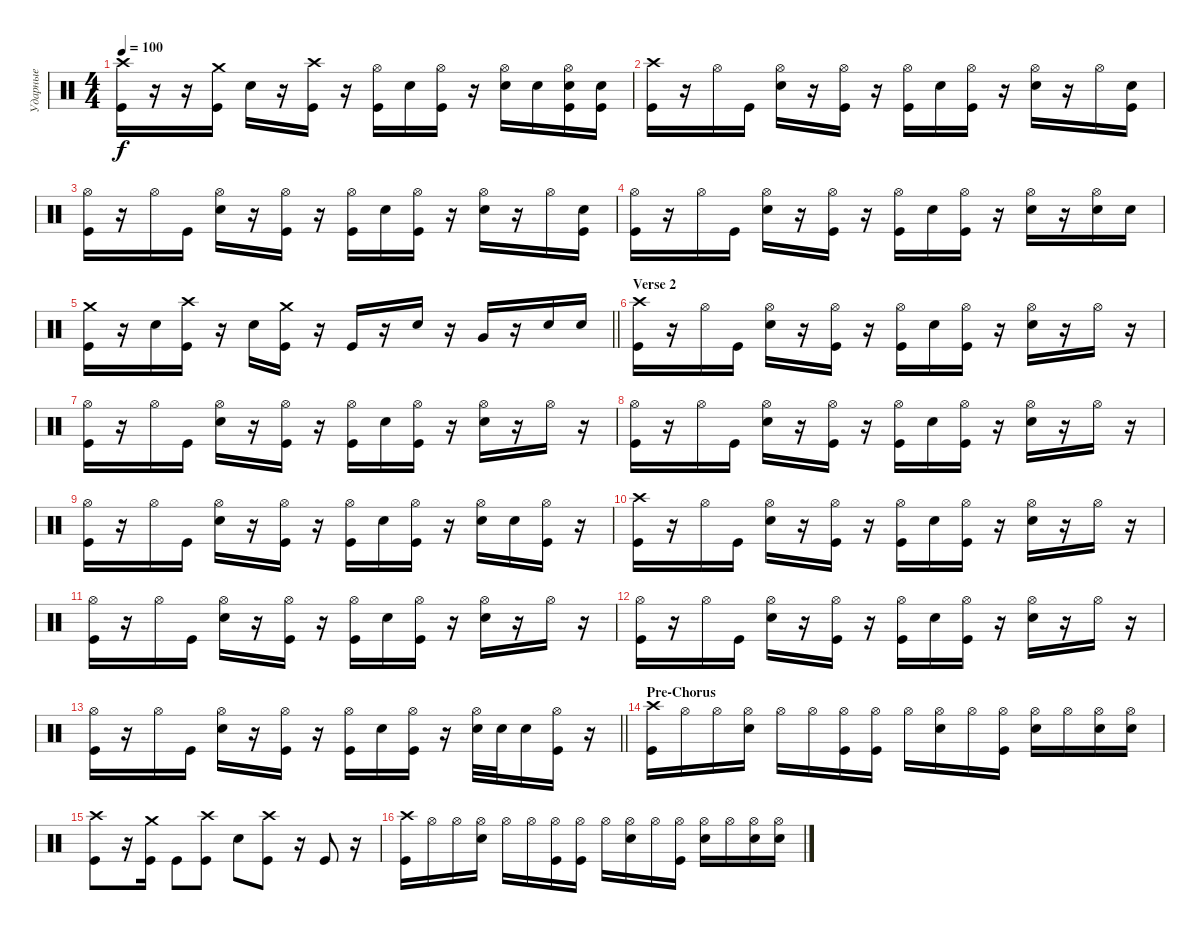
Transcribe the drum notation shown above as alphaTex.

\track ("Ударные" "Ударные") {instrument percussion}
\staff {score}
\articulation defaults
\ts (4 4)
\tempo 100
\clef neutral
\ks c
("Crash high (hit)" "Kick (hit)").16{dy f} r.16 r.16 ("Crash medium (hit)" "Kick (hit)").16 "Snare (hit) 2".16 r.16 ("Crash high (hit)" "Kick (hit)").16 r.16 ("Hi-Hat (open)" "Kick (hit)").16 "Snare (hit) 2".16 ("Hi-Hat (open)" "Kick (hit)").16 r.16 ("Hi-Hat (open)" "Snare (hit) 2").16 "Snare (hit) 2".16 ("Hi-Hat (open)" "Snare (hit) 2" "Kick (hit)").16 ("Snare (hit) 2" "Kick (hit)").16 |
("Crash high (hit)" "Kick (hit)").16 r.16 "Hi-Hat (open)".16 "Kick (hit)".16 ("Hi-Hat (open)" "Snare (hit) 2").16 r.16 ("Hi-Hat (open)" "Kick (hit)").16 r.16 ("Hi-Hat (open)" "Kick (hit)").16 "Snare (hit) 2".16 ("Hi-Hat (open)" "Kick (hit)").16 r.16 ("Hi-Hat (open)" "Snare (hit) 2").16 r.16 "Hi-Hat (open)".16 ("Snare (hit) 2" "Kick (hit)").16 |
("Hi-Hat (open)" "Kick (hit)").16 r.16 "Hi-Hat (open)".16 "Kick (hit)".16 ("Hi-Hat (open)" "Snare (hit) 2").16 r.16 ("Hi-Hat (open)" "Kick (hit)").16 r.16 ("Hi-Hat (open)" "Kick (hit)").16 "Snare (hit) 2".16 ("Hi-Hat (open)" "Kick (hit)").16 r.16 ("Hi-Hat (open)" "Snare (hit) 2").16 r.16 "Hi-Hat (open)".16 ("Snare (hit) 2" "Kick (hit)").16 |
("Hi-Hat (open)" "Kick (hit)").16 r.16 "Hi-Hat (open)".16 "Kick (hit)".16 ("Hi-Hat (open)" "Snare (hit) 2").16 r.16 ("Hi-Hat (open)" "Kick (hit)").16 r.16 ("Hi-Hat (open)" "Kick (hit)").16 "Snare (hit) 2".16 ("Hi-Hat (open)" "Kick (hit)").16 r.16 ("Hi-Hat (open)" "Snare (hit) 2").16 r.16 ("Hi-Hat (open)" "Snare (hit) 2").16 "Snare (hit) 2".16 |
\barLineRight lightlight
("Crash medium (hit)" "Kick (hit)").16 r.16 "Snare (hit) 2".16 ("Crash high (hit)" "Kick (hit)").16 r.16 "Snare (hit) 2".16 ("Crash medium (hit)" "Kick (hit)").16 r.16 "Kick (hit)".16 r.16 "Snare (hit) 2".16 r.16 "Very Low Tom (hit)".16 r.16 "Snare (hit) 2".16 "Snare (hit) 2".16 |
\section ("" "Verse 2")
("Crash high (hit)" "Kick (hit)").16 r.16 "Hi-Hat (open)".16 "Kick (hit)".16 ("Hi-Hat (open)" "Snare (hit) 2").16 r.16 ("Hi-Hat (open)" "Kick (hit)").16 r.16 ("Hi-Hat (open)" "Kick (hit)").16 "Snare (hit) 2".16 ("Hi-Hat (open)" "Kick (hit)").16 r.16 ("Hi-Hat (open)" "Snare (hit) 2").16 r.16 "Hi-Hat (open)".16 r.16 |
("Hi-Hat (open)" "Kick (hit)").16 r.16 "Hi-Hat (open)".16 "Kick (hit)".16 ("Hi-Hat (open)" "Snare (hit) 2").16 r.16 ("Hi-Hat (open)" "Kick (hit)").16 r.16 ("Hi-Hat (open)" "Kick (hit)").16 "Snare (hit) 2".16 ("Hi-Hat (open)" "Kick (hit)").16 r.16 ("Hi-Hat (open)" "Snare (hit) 2").16 r.16 "Hi-Hat (open)".16 r.16 |
("Hi-Hat (open)" "Kick (hit)").16 r.16 "Hi-Hat (open)".16 "Kick (hit)".16 ("Hi-Hat (open)" "Snare (hit) 2").16 r.16 ("Hi-Hat (open)" "Kick (hit)").16 r.16 ("Hi-Hat (open)" "Kick (hit)").16 "Snare (hit) 2".16 ("Hi-Hat (open)" "Kick (hit)").16 r.16 ("Hi-Hat (open)" "Snare (hit) 2").16 r.16 "Hi-Hat (open)".16 r.16 |
("Hi-Hat (open)" "Kick (hit)").16 r.16 "Hi-Hat (open)".16 "Kick (hit)".16 ("Hi-Hat (open)" "Snare (hit) 2").16 r.16 ("Hi-Hat (open)" "Kick (hit)").16 r.16 ("Hi-Hat (open)" "Kick (hit)").16 "Snare (hit) 2".16 ("Hi-Hat (open)" "Kick (hit)").16 r.16 ("Hi-Hat (open)" "Snare (hit) 2").16 "Snare (hit) 2".16 ("Hi-Hat (open)" "Kick (hit)").16 r.16 |
("Crash high (hit)" "Kick (hit)").16 r.16 "Hi-Hat (open)".16 "Kick (hit)".16 ("Hi-Hat (open)" "Snare (hit) 2").16 r.16 ("Hi-Hat (open)" "Kick (hit)").16 r.16 ("Hi-Hat (open)" "Kick (hit)").16 "Snare (hit) 2".16 ("Hi-Hat (open)" "Kick (hit)").16 r.16 ("Hi-Hat (open)" "Snare (hit) 2").16 r.16 "Hi-Hat (open)".16 r.16 |
("Hi-Hat (open)" "Kick (hit)").16 r.16 "Hi-Hat (open)".16 "Kick (hit)".16 ("Hi-Hat (open)" "Snare (hit) 2").16 r.16 ("Hi-Hat (open)" "Kick (hit)").16 r.16 ("Hi-Hat (open)" "Kick (hit)").16 "Snare (hit) 2".16 ("Hi-Hat (open)" "Kick (hit)").16 r.16 ("Hi-Hat (open)" "Snare (hit) 2").16 r.16 "Hi-Hat (open)".16 r.16 |
("Hi-Hat (open)" "Kick (hit)").16 r.16 "Hi-Hat (open)".16 "Kick (hit)".16 ("Hi-Hat (open)" "Snare (hit) 2").16 r.16 ("Hi-Hat (open)" "Kick (hit)").16 r.16 ("Hi-Hat (open)" "Kick (hit)").16 "Snare (hit) 2".16 ("Hi-Hat (open)" "Kick (hit)").16 r.16 ("Hi-Hat (open)" "Snare (hit) 2").16 r.16 "Hi-Hat (open)".16 r.16 |
\barLineRight lightlight
("Hi-Hat (open)" "Kick (hit)").16 r.16 "Hi-Hat (open)".16 "Kick (hit)".16 ("Hi-Hat (open)" "Snare (hit) 2").16 r.16 ("Hi-Hat (open)" "Kick (hit)").16 r.16 ("Hi-Hat (open)" "Kick (hit)").16 "Snare (hit) 2".16 ("Hi-Hat (open)" "Kick (hit)").16 r.16 ("Hi-Hat (open)" "Snare (hit) 2").32 "Snare (hit) 2".32 "Snare (hit) 2".16 ("Hi-Hat (open)" "Kick (hit)").16 r.16 |
\section ("" "Pre-Chorus")
("Crash high (hit)" "Kick (hit)").16 "Hi-Hat (open)".16 "Hi-Hat (open)".16 ("Hi-Hat (open)" "Snare (hit) 2").16 "Hi-Hat (open)".16 "Hi-Hat (open)".16 ("Hi-Hat (open)" "Kick (hit)").16 ("Hi-Hat (open)" "Kick (hit)").16 "Hi-Hat (open)".16 ("Hi-Hat (open)" "Snare (hit) 2").16 "Hi-Hat (open)".16 ("Hi-Hat (open)" "Kick (hit)").16 ("Hi-Hat (open)" "Snare (hit) 2").16 "Hi-Hat (open)".16 ("Hi-Hat (open)" "Snare (hit) 2").16 ("Hi-Hat (open)" "Snare (hit) 2").16 |
("Crash high (hit)" "Kick (hit)").8 r.16 ("Crash medium (hit)" "Kick (hit)").16 "Kick (hit)".8 ("Crash high (hit)" "Kick (hit)").8 "Snare (hit) 2".8 ("Crash high (hit)" "Kick (hit)").8 r.16 "Kick (hit)".8 r.16 |
("Crash high (hit)" "Kick (hit)").16 "Hi-Hat (open)".16 "Hi-Hat (open)".16 ("Hi-Hat (open)" "Snare (hit) 2").16 "Hi-Hat (open)".16 "Hi-Hat (open)".16 ("Hi-Hat (open)" "Kick (hit)").16 ("Hi-Hat (open)" "Kick (hit)").16 "Hi-Hat (open)".16 ("Hi-Hat (open)" "Snare (hit) 2").16 "Hi-Hat (open)".16 ("Hi-Hat (open)" "Kick (hit)").16 ("Hi-Hat (open)" "Snare (hit) 2").16 "Hi-Hat (open)".16 ("Hi-Hat (open)" "Snare (hit) 2").16 ("Hi-Hat (open)" "Snare (hit) 2").16
